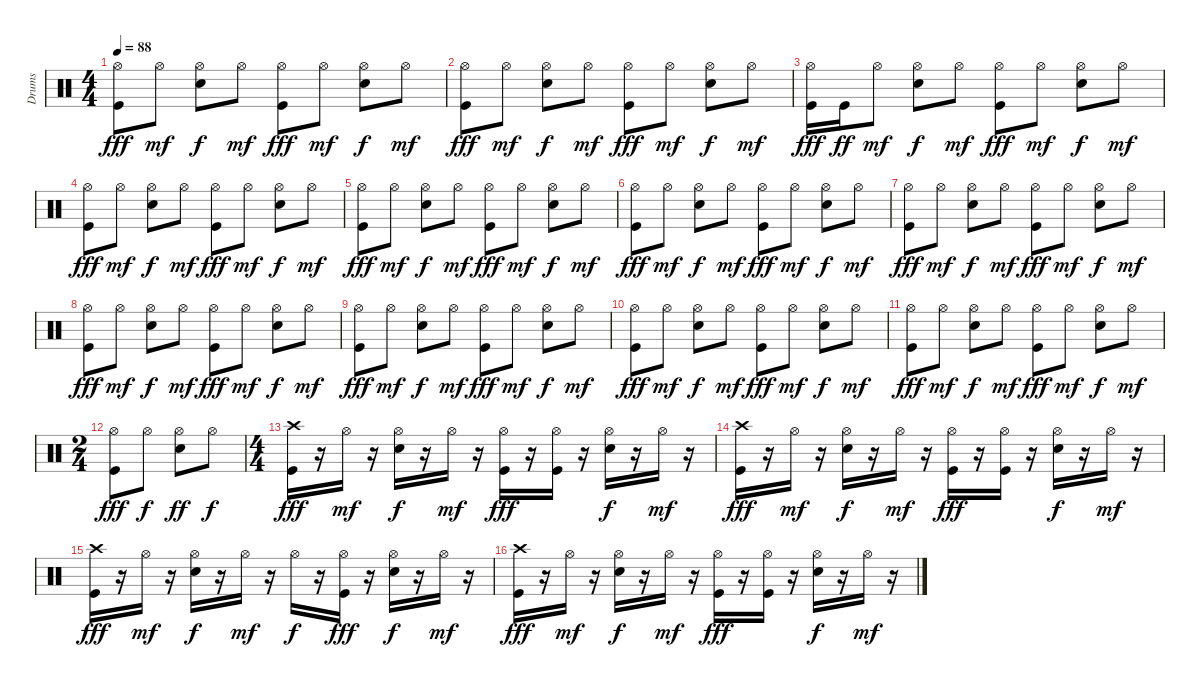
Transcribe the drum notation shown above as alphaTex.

\track ("Drums" "Drums") {instrument percussion}
\staff {score}
\articulation defaults
\ts (4 4)
\tempo 88
\clef neutral
\ks c
("Hi-Hat (open)" "Kick (hit)").8{dy fff} "Hi-Hat (open)".8{dy mf} ("Hi-Hat (open)" "Snare (hit) 2").8{dy f} "Hi-Hat (open)".8{dy mf} ("Hi-Hat (open)" "Kick (hit)").8{dy fff} "Hi-Hat (open)".8{dy mf} ("Hi-Hat (open)" "Snare (hit) 2").8{dy f} "Hi-Hat (open)".8{dy mf} |
("Hi-Hat (open)" "Kick (hit)").8{dy fff} "Hi-Hat (open)".8{dy mf} ("Hi-Hat (open)" "Snare (hit) 2").8{dy f} "Hi-Hat (open)".8{dy mf} ("Hi-Hat (open)" "Kick (hit)").8{dy fff} "Hi-Hat (open)".8{dy mf} ("Hi-Hat (open)" "Snare (hit) 2").8{dy f} "Hi-Hat (open)".8{dy mf} |
("Hi-Hat (open)" "Kick (hit)").16{dy fff} "Kick (hit)".16{dy ff} "Hi-Hat (open)".8{dy mf} ("Hi-Hat (open)" "Snare (hit) 2").8{dy f} "Hi-Hat (open)".8{dy mf} ("Hi-Hat (open)" "Kick (hit)").8{dy fff} "Hi-Hat (open)".8{dy mf} ("Hi-Hat (open)" "Snare (hit) 2").8{dy f} "Hi-Hat (open)".8{dy mf} |
("Hi-Hat (open)" "Kick (hit)").8{dy fff} "Hi-Hat (open)".8{dy mf} ("Hi-Hat (open)" "Snare (hit) 2").8{dy f} "Hi-Hat (open)".8{dy mf} ("Hi-Hat (open)" "Kick (hit)").8{dy fff} "Hi-Hat (open)".8{dy mf} ("Hi-Hat (open)" "Snare (hit) 2").8{dy f} "Hi-Hat (open)".8{dy mf} |
("Hi-Hat (open)" "Kick (hit)").8{dy fff} "Hi-Hat (open)".8{dy mf} ("Hi-Hat (open)" "Snare (hit) 2").8{dy f} "Hi-Hat (open)".8{dy mf} ("Hi-Hat (open)" "Kick (hit)").8{dy fff} "Hi-Hat (open)".8{dy mf} ("Hi-Hat (open)" "Snare (hit) 2").8{dy f} "Hi-Hat (open)".8{dy mf} |
("Hi-Hat (open)" "Kick (hit)").8{dy fff} "Hi-Hat (open)".8{dy mf} ("Hi-Hat (open)" "Snare (hit) 2").8{dy f} "Hi-Hat (open)".8{dy mf} ("Hi-Hat (open)" "Kick (hit)").8{dy fff} "Hi-Hat (open)".8{dy mf} ("Hi-Hat (open)" "Snare (hit) 2").8{dy f} "Hi-Hat (open)".8{dy mf} |
("Hi-Hat (open)" "Kick (hit)").8{dy fff} "Hi-Hat (open)".8{dy mf} ("Hi-Hat (open)" "Snare (hit) 2").8{dy f} "Hi-Hat (open)".8{dy mf} ("Hi-Hat (open)" "Kick (hit)").8{dy fff} "Hi-Hat (open)".8{dy mf} ("Hi-Hat (open)" "Snare (hit) 2").8{dy f} "Hi-Hat (open)".8{dy mf} |
("Hi-Hat (open)" "Kick (hit)").8{dy fff} "Hi-Hat (open)".8{dy mf} ("Hi-Hat (open)" "Snare (hit) 2").8{dy f} "Hi-Hat (open)".8{dy mf} ("Hi-Hat (open)" "Kick (hit)").8{dy fff} "Hi-Hat (open)".8{dy mf} ("Hi-Hat (open)" "Snare (hit) 2").8{dy f} "Hi-Hat (open)".8{dy mf} |
("Hi-Hat (open)" "Kick (hit)").8{dy fff} "Hi-Hat (open)".8{dy mf} ("Hi-Hat (open)" "Snare (hit) 2").8{dy f} "Hi-Hat (open)".8{dy mf} ("Hi-Hat (open)" "Kick (hit)").8{dy fff} "Hi-Hat (open)".8{dy mf} ("Hi-Hat (open)" "Snare (hit) 2").8{dy f} "Hi-Hat (open)".8{dy mf} |
("Hi-Hat (open)" "Kick (hit)").8{dy fff} "Hi-Hat (open)".8{dy mf} ("Hi-Hat (open)" "Snare (hit) 2").8{dy f} "Hi-Hat (open)".8{dy mf} ("Hi-Hat (open)" "Kick (hit)").8{dy fff} "Hi-Hat (open)".8{dy mf} ("Hi-Hat (open)" "Snare (hit) 2").8{dy f} "Hi-Hat (open)".8{dy mf} |
("Hi-Hat (open)" "Kick (hit)").8{dy fff} "Hi-Hat (open)".8{dy mf} ("Hi-Hat (open)" "Snare (hit) 2").8{dy f} "Hi-Hat (open)".8{dy mf} ("Hi-Hat (open)" "Kick (hit)").8{dy fff} "Hi-Hat (open)".8{dy mf} ("Hi-Hat (open)" "Snare (hit) 2").8{dy f} "Hi-Hat (open)".8{dy mf} |
\ts (2 4)
("Hi-Hat (open)" "Kick (hit)").8{dy fff} "Hi-Hat (open)".8{dy f} ("Hi-Hat (open)" "Snare (hit) 2").8{dy ff} "Hi-Hat (open)".8{dy f} |
\ts (4 4)
("Crash high (hit)" "Kick (hit)").16{dy fff} r.16 "Hi-Hat (open)".16{dy mf} r.16 ("Hi-Hat (open)" "Snare (hit) 2").16{dy f} r.16 "Hi-Hat (open)".16{dy mf} r.16 ("Hi-Hat (open)" "Kick (hit)").16{dy fff} r.16 ("Hi-Hat (open)" "Kick (hit)").16 r.16 ("Hi-Hat (open)" "Snare (hit) 2").16{dy f} r.16 "Hi-Hat (open)".16{dy mf} r.16 |
("Crash high (hit)" "Kick (hit)").16{dy fff} r.16 "Hi-Hat (open)".16{dy mf} r.16 ("Hi-Hat (open)" "Snare (hit) 2").16{dy f} r.16 "Hi-Hat (open)".16{dy mf} r.16 ("Hi-Hat (open)" "Kick (hit)").16{dy fff} r.16 ("Hi-Hat (open)" "Kick (hit)").16 r.16 ("Hi-Hat (open)" "Snare (hit) 2").16{dy f} r.16 "Hi-Hat (open)".16{dy mf} r.16 |
("Crash high (hit)" "Kick (hit)").16{dy fff} r.16 "Hi-Hat (open)".16{dy mf} r.16 ("Hi-Hat (open)" "Snare (hit) 2").16{dy f} r.16 "Hi-Hat (open)".16{dy mf} r.16 "Hi-Hat (open)".16{dy f} r.16 ("Hi-Hat (open)" "Kick (hit)").16{dy fff} r.16 ("Hi-Hat (open)" "Snare (hit) 2").16{dy f} r.16 "Hi-Hat (open)".16{dy mf} r.16 |
("Crash high (hit)" "Kick (hit)").16{dy fff} r.16 "Hi-Hat (open)".16{dy mf} r.16 ("Hi-Hat (open)" "Snare (hit) 2").16{dy f} r.16 "Hi-Hat (open)".16{dy mf} r.16 ("Hi-Hat (open)" "Kick (hit)").16{dy fff} r.16 ("Hi-Hat (open)" "Kick (hit)").16 r.16 ("Hi-Hat (open)" "Snare (hit) 2").16{dy f} r.16 "Hi-Hat (open)".16{dy mf} r.16
